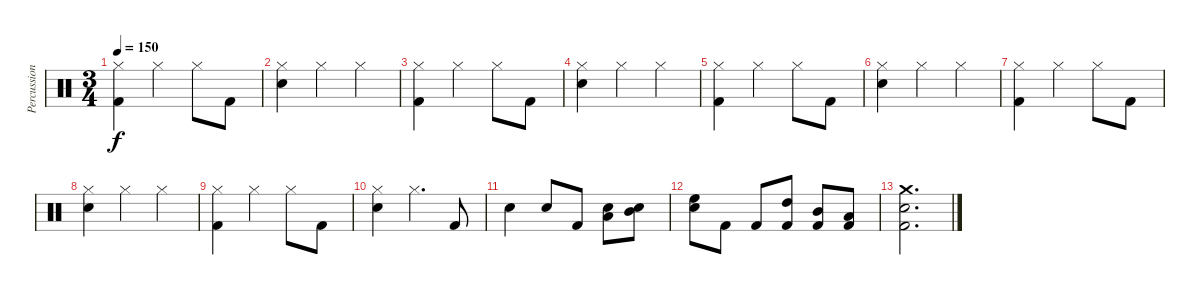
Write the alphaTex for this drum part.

\track ("Percussion" "Percussion") {instrument percussion}
\staff {score}
\articulation defaults
\ts (3 4)
\tempo 150
\clef neutral
\ks c
("Hi-Hat (closed)" "Kick (hit) 2").4{dy f} "Hi-Hat (closed)".4 "Hi-Hat (closed)".8 "Kick (hit) 2".8 |
("Hi-Hat (closed)" "Snare (hit) 2").4 "Hi-Hat (closed)".4 "Hi-Hat (closed)".4 |
("Hi-Hat (closed)" "Kick (hit) 2").4 "Hi-Hat (closed)".4 "Hi-Hat (closed)".8 "Kick (hit) 2".8 |
("Hi-Hat (closed)" "Snare (hit) 2").4 "Hi-Hat (closed)".4 "Hi-Hat (closed)".4 |
("Hi-Hat (closed)" "Kick (hit) 2").4 "Hi-Hat (closed)".4 "Hi-Hat (closed)".8 "Kick (hit) 2".8 |
("Hi-Hat (closed)" "Snare (hit) 2").4 "Hi-Hat (closed)".4 "Hi-Hat (closed)".4 |
("Hi-Hat (closed)" "Kick (hit) 2").4 "Hi-Hat (closed)".4 "Hi-Hat (closed)".8 "Kick (hit) 2".8 |
("Hi-Hat (closed)" "Snare (hit) 2").4 "Hi-Hat (closed)".4 "Hi-Hat (closed)".4 |
("Hi-Hat (closed)" "Kick (hit) 2").4 "Hi-Hat (closed)".4 "Hi-Hat (closed)".8 "Kick (hit) 2".8 |
("Hi-Hat (closed)" "Snare (hit) 2").4 "Hi-Hat (closed)".4{d} "Kick (hit) 2".8 |
"Snare (hit) 2".4 "Snare (hit) 2".8 "Kick (hit) 2".8 ("Low Tom (hit)" "Snare (hit) 2").8 ("Mid Tom (hit)" "Snare (hit) 2").8 |
("High Floor Tom (hit)" "Snare (hit) 2").8 "Kick (hit) 2".8 "Kick (hit) 2".8 ("High Tom (hit)" "Kick (hit) 2").8 ("Mid Tom (hit)" "Kick (hit) 2").8 ("Low Tom (hit)" "Kick (hit) 2").8 |
("Crash medium (hit)" "Snare (hit) 2" "Kick (hit) 2").2{d}
